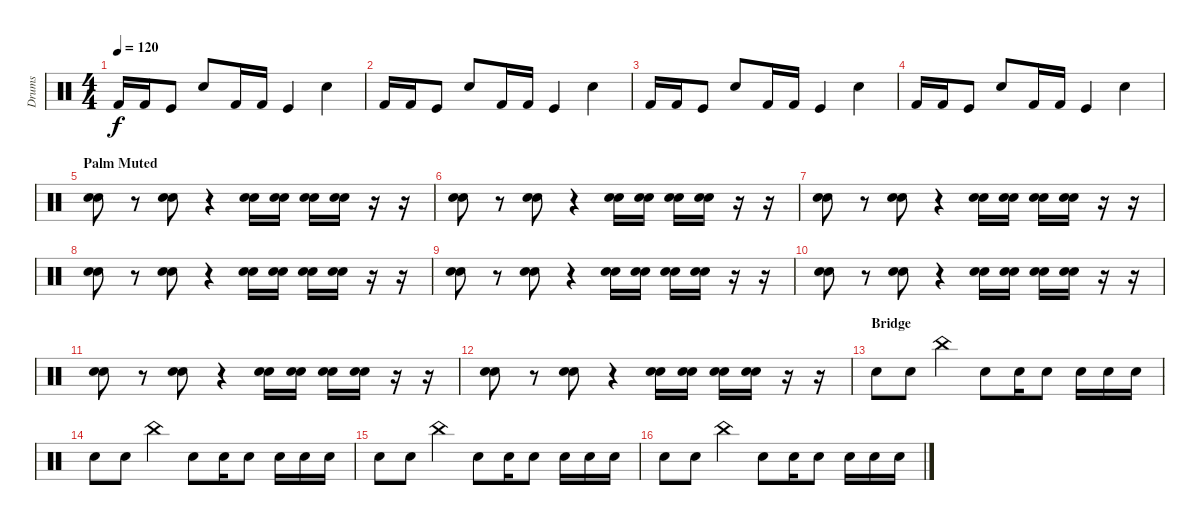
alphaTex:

\track ("Drums" "Drums") {instrument percussion}
\staff {score}
\articulation defaults
\ts (4 4)
\tempo 120
\clef neutral
\ks c "Kick (hit) 2".16{dy f} "Kick (hit) 2".16 "Kick (hit)".8 "Electric Snare (hit)".8 "Kick (hit) 2".16 "Kick (hit) 2".16 "Kick (hit)".4 "Electric Snare (hit)".4
|
"Kick (hit) 2".16 "Kick (hit) 2".16 "Kick (hit)".8 "Electric Snare (hit)".8 "Kick (hit) 2".16 "Kick (hit) 2".16 "Kick (hit)".4 "Electric Snare (hit)".4 |
"Kick (hit) 2".16 "Kick (hit) 2".16 "Kick (hit)".8 "Electric Snare (hit)".8 "Kick (hit) 2".16 "Kick (hit) 2".16 "Kick (hit)".4 "Electric Snare (hit)".4 |
"Kick (hit) 2".16 "Kick (hit) 2".16 "Kick (hit)".8 "Electric Snare (hit)".8 "Kick (hit) 2".16 "Kick (hit) 2".16 "Kick (hit)".4 "Electric Snare (hit)".4 |
\section ("" "Palm Muted")
("Snare (hit) 2" "Electric Snare (hit)").8 r.8 ("Snare (hit) 2" "Electric Snare (hit)").8 r.4 ("Snare (hit) 2" "Electric Snare (hit)").16 ("Snare (hit) 2" "Electric Snare (hit)").16 ("Snare (hit) 2" "Electric Snare (hit)").16 ("Snare (hit) 2" "Electric Snare (hit)").16 r.16 r.16 |
("Snare (hit) 2" "Electric Snare (hit)").8 r.8 ("Snare (hit) 2" "Electric Snare (hit)").8 r.4 ("Snare (hit) 2" "Electric Snare (hit)").16 ("Snare (hit) 2" "Electric Snare (hit)").16 ("Snare (hit) 2" "Electric Snare (hit)").16 ("Snare (hit) 2" "Electric Snare (hit)").16 r.16 r.16 |
("Snare (hit) 2" "Electric Snare (hit)").8 r.8 ("Snare (hit) 2" "Electric Snare (hit)").8 r.4 ("Snare (hit) 2" "Electric Snare (hit)").16 ("Snare (hit) 2" "Electric Snare (hit)").16 ("Snare (hit) 2" "Electric Snare (hit)").16 ("Snare (hit) 2" "Electric Snare (hit)").16 r.16 r.16 |
("Snare (hit) 2" "Electric Snare (hit)").8 r.8 ("Snare (hit) 2" "Electric Snare (hit)").8 r.4 ("Snare (hit) 2" "Electric Snare (hit)").16 ("Snare (hit) 2" "Electric Snare (hit)").16 ("Snare (hit) 2" "Electric Snare (hit)").16 ("Snare (hit) 2" "Electric Snare (hit)").16 r.16 r.16 |
("Snare (hit) 2" "Electric Snare (hit)").8 r.8 ("Snare (hit) 2" "Electric Snare (hit)").8 r.4 ("Snare (hit) 2" "Electric Snare (hit)").16 ("Snare (hit) 2" "Electric Snare (hit)").16 ("Snare (hit) 2" "Electric Snare (hit)").16 ("Snare (hit) 2" "Electric Snare (hit)").16 r.16 r.16 |
("Snare (hit) 2" "Electric Snare (hit)").8 r.8 ("Snare (hit) 2" "Electric Snare (hit)").8 r.4 ("Snare (hit) 2" "Electric Snare (hit)").16 ("Snare (hit) 2" "Electric Snare (hit)").16 ("Snare (hit) 2" "Electric Snare (hit)").16 ("Snare (hit) 2" "Electric Snare (hit)").16 r.16 r.16 |
("Snare (hit) 2" "Electric Snare (hit)").8 r.8 ("Snare (hit) 2" "Electric Snare (hit)").8 r.4 ("Snare (hit) 2" "Electric Snare (hit)").16 ("Snare (hit) 2" "Electric Snare (hit)").16 ("Snare (hit) 2" "Electric Snare (hit)").16 ("Snare (hit) 2" "Electric Snare (hit)").16 r.16 r.16 |
("Snare (hit) 2" "Electric Snare (hit)").8 r.8 ("Snare (hit) 2" "Electric Snare (hit)").8 r.4 ("Snare (hit) 2" "Electric Snare (hit)").16 ("Snare (hit) 2" "Electric Snare (hit)").16 ("Snare (hit) 2" "Electric Snare (hit)").16 ("Snare (hit) 2" "Electric Snare (hit)").16 r.16 r.16 |
\section ("" "Bridge")
"Snare (hit) 2".8 "Snare (hit) 2".8 "China (hit)".4 "Snare (hit) 2".8 "Snare (hit) 2".16 "Snare (hit) 2".8 "Snare (hit) 2".16 "Snare (hit) 2".16 "Snare (hit) 2".16 |
"Snare (hit) 2".8 "Snare (hit) 2".8 "China (hit)".4 "Snare (hit) 2".8 "Snare (hit) 2".16 "Snare (hit) 2".8 "Snare (hit) 2".16 "Snare (hit) 2".16 "Snare (hit) 2".16 |
"Snare (hit) 2".8 "Snare (hit) 2".8 "China (hit)".4 "Snare (hit) 2".8 "Snare (hit) 2".16 "Snare (hit) 2".8 "Snare (hit) 2".16 "Snare (hit) 2".16 "Snare (hit) 2".16 |
"Snare (hit) 2".8 "Snare (hit) 2".8 "China (hit)".4 "Snare (hit) 2".8 "Snare (hit) 2".16 "Snare (hit) 2".8 "Snare (hit) 2".16 "Snare (hit) 2".16 "Snare (hit) 2".16
